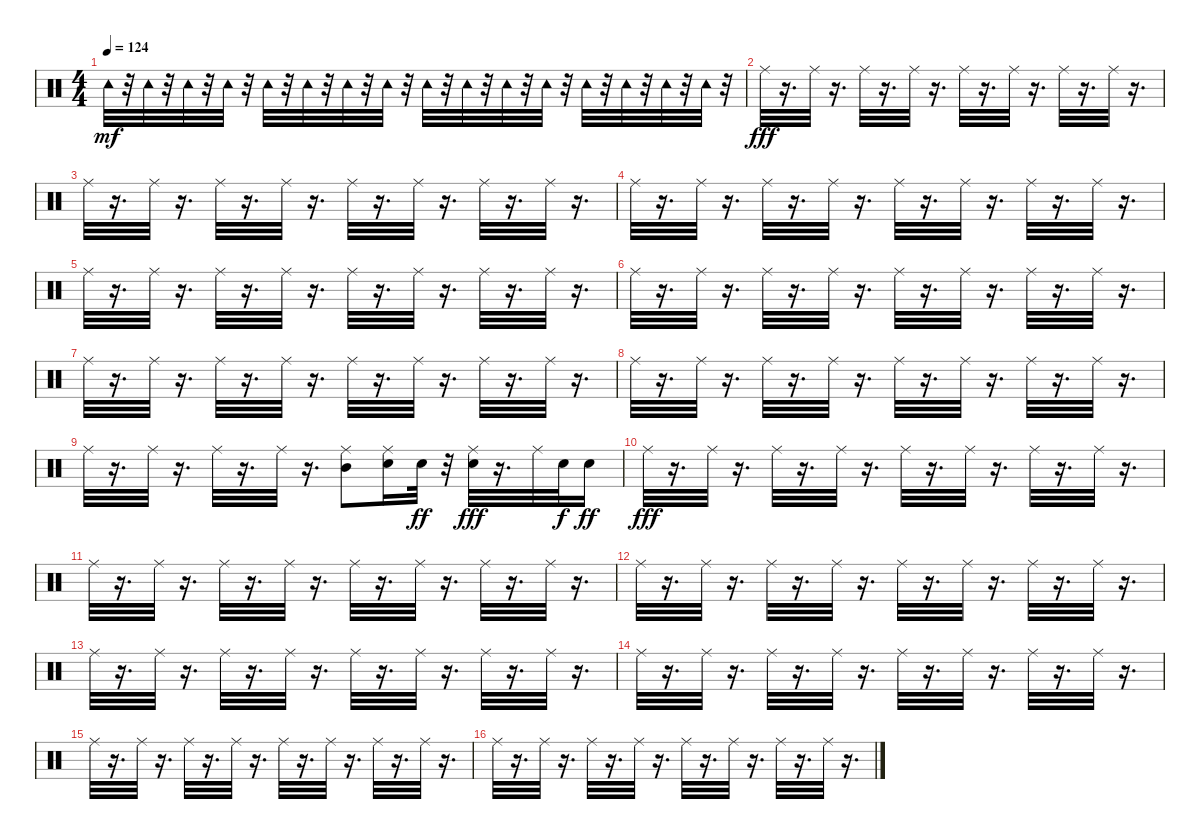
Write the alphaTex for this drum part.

\track "" {instrument percussion}
\staff {score}
\articulation defaults
\ts (4 4)
\tempo 124
\clef neutral
\ks c "Tambourine (hit)".32{dy mf}
r.32 "Tambourine (hit)".32 r.32 "Tambourine (hit)".32 r.32 "Tambourine (hit)".32 r.32 "Tambourine (hit)".32 r.32 "Tambourine (hit)".32 r.32 "Tambourine (hit)".32 r.32 "Tambourine (hit)".32 r.32 "Tambourine (hit)".32 r.32 "Tambourine (hit)".32 r.32 "Tambourine (hit)".32 r.32 "Tambourine (hit)".32 r.32 "Tambourine (hit)".32 r.32 "Tambourine (hit)".32 r.32 "Tambourine (hit)".32 r.32 "Tambourine (hit)".32 r.32 |
"Ride (middle)".32{dy fff} r.16{d} "Ride (middle)".32 r.16{d} "Ride (middle)".32 r.16{d} "Ride (middle)".32 r.16{d} "Ride (middle)".32 r.16{d} "Ride (middle)".32 r.16{d} "Ride (middle)".32 r.16{d} "Ride (middle)".32 r.16{d} |
"Ride (middle)".32 r.16{d} "Ride (middle)".32 r.16{d} "Ride (middle)".32 r.16{d} "Ride (middle)".32 r.16{d} "Ride (middle)".32 r.16{d} "Ride (middle)".32 r.16{d} "Ride (middle)".32 r.16{d} "Ride (middle)".32 r.16{d} |
"Ride (middle)".32 r.16{d} "Ride (middle)".32 r.16{d} "Ride (middle)".32 r.16{d} "Ride (middle)".32 r.16{d} "Ride (middle)".32 r.16{d} "Ride (middle)".32 r.16{d} "Ride (middle)".32 r.16{d} "Ride (middle)".32 r.16{d} |
"Ride (middle)".32 r.16{d} "Ride (middle)".32 r.16{d} "Ride (middle)".32 r.16{d} "Ride (middle)".32 r.16{d} "Ride (middle)".32 r.16{d} "Ride (middle)".32 r.16{d} "Ride (middle)".32 r.16{d} "Ride (middle)".32 r.16{d} |
"Ride (middle)".32 r.16{d} "Ride (middle)".32 r.16{d} "Ride (middle)".32 r.16{d} "Ride (middle)".32 r.16{d} "Ride (middle)".32 r.16{d} "Ride (middle)".32 r.16{d} "Ride (middle)".32 r.16{d} "Ride (middle)".32 r.16{d} |
"Ride (middle)".32 r.16{d} "Ride (middle)".32 r.16{d} "Ride (middle)".32 r.16{d} "Ride (middle)".32 r.16{d} "Ride (middle)".32 r.16{d} "Ride (middle)".32 r.16{d} "Ride (middle)".32 r.16{d} "Ride (middle)".32 r.16{d} |
"Ride (middle)".32 r.16{d} "Ride (middle)".32 r.16{d} "Ride (middle)".32 r.16{d} "Ride (middle)".32 r.16{d} "Ride (middle)".32 r.16{d} "Ride (middle)".32 r.16{d} "Ride (middle)".32 r.16{d} "Ride (middle)".32 r.16{d} |
"Ride (middle)".32 r.16{d} "Ride (middle)".32 r.16{d} "Ride (middle)".32 r.16{d} "Ride (middle)".32 r.16{d} ("Mid Tom (hit)" "Ride (middle)").8 ("Ride (middle)" "Electric Snare (hit)").16 "Electric Snare (hit)".32{dy ff} r.32 ("Ride (middle)" "Electric Snare (hit)").32{dy fff} r.16{d} "Ride (middle)".32 "Electric Snare (hit)".32{dy f} "Electric Snare (hit)".16{dy ff} |
"Ride (middle)".32{dy fff} r.16{d} "Ride (middle)".32 r.16{d} "Ride (middle)".32 r.16{d} "Ride (middle)".32 r.16{d} "Ride (middle)".32 r.16{d} "Ride (middle)".32 r.16{d} "Ride (middle)".32 r.16{d} "Ride (middle)".32 r.16{d} |
"Ride (middle)".32 r.16{d} "Ride (middle)".32 r.16{d} "Ride (middle)".32 r.16{d} "Ride (middle)".32 r.16{d} "Ride (middle)".32 r.16{d} "Ride (middle)".32 r.16{d} "Ride (middle)".32 r.16{d} "Ride (middle)".32 r.16{d} |
"Ride (middle)".32 r.16{d} "Ride (middle)".32 r.16{d} "Ride (middle)".32 r.16{d} "Ride (middle)".32 r.16{d} "Ride (middle)".32 r.16{d} "Ride (middle)".32 r.16{d} "Ride (middle)".32 r.16{d} "Ride (middle)".32 r.16{d} |
"Ride (middle)".32 r.16{d} "Ride (middle)".32 r.16{d} "Ride (middle)".32 r.16{d} "Ride (middle)".32 r.16{d} "Ride (middle)".32 r.16{d} "Ride (middle)".32 r.16{d} "Ride (middle)".32 r.16{d} "Ride (middle)".32 r.16{d} |
"Ride (middle)".32 r.16{d} "Ride (middle)".32 r.16{d} "Ride (middle)".32 r.16{d} "Ride (middle)".32 r.16{d} "Ride (middle)".32 r.16{d} "Ride (middle)".32 r.16{d} "Ride (middle)".32 r.16{d} "Ride (middle)".32 r.16{d} |
"Ride (middle)".32 r.16{d} "Ride (middle)".32 r.16{d} "Ride (middle)".32 r.16{d} "Ride (middle)".32 r.16{d} "Ride (middle)".32 r.16{d} "Ride (middle)".32 r.16{d} "Ride (middle)".32 r.16{d} "Ride (middle)".32 r.16{d} |
"Ride (middle)".32 r.16{d} "Ride (middle)".32 r.16{d} "Ride (middle)".32 r.16{d} "Ride (middle)".32 r.16{d} "Ride (middle)".32 r.16{d} "Ride (middle)".32 r.16{d} "Ride (middle)".32 r.16{d} "Ride (middle)".32 r.16{d}
